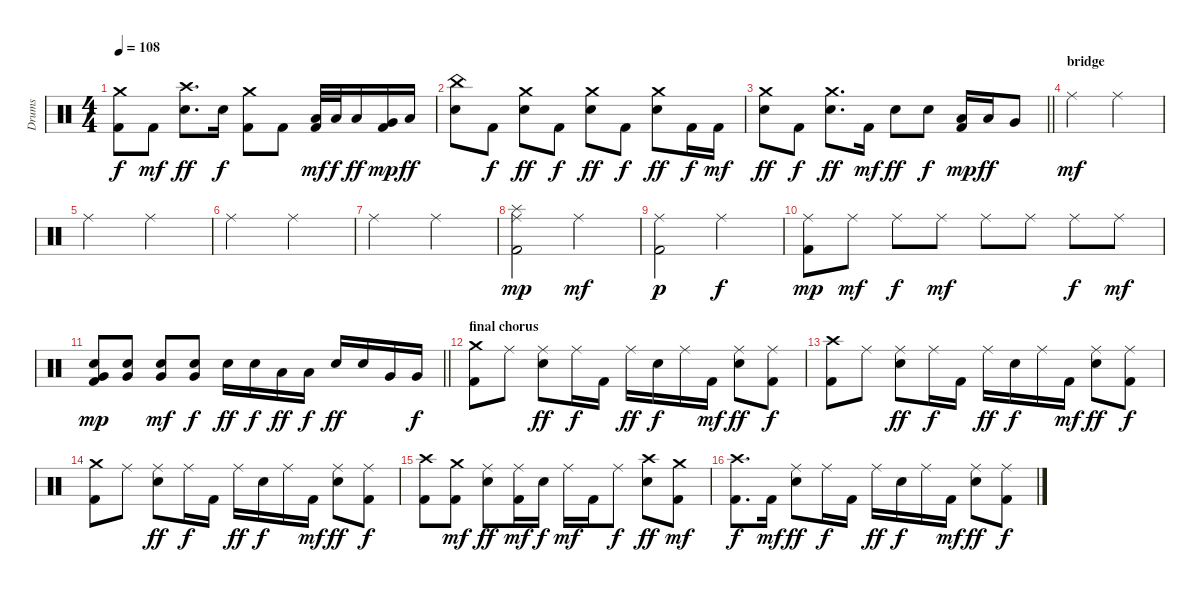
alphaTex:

\track ("Drums" "Drums") {instrument percussion}
\staff {score}
\articulation defaults
\ts (4 4)
\tempo 108
\clef neutral
\ks c
("Crash medium (hit)" "Kick (hit) 2").8{dy f} "Kick (hit) 2".8{dy mf} ("Crash high (hit)" "Electric Snare (hit)").8{d dy ff} "Electric Snare (hit)".16{dy f} ("Crash medium (hit)" "Kick (hit) 2").8 "Kick (hit) 2".8 ("Low Tom (hit)" "Kick (hit) 2").32{dy mf} "Low Tom (hit)".32{dy f} "Low Tom (hit)".16{dy ff} ("Very Low Tom (hit)" "Kick (hit) 2").16{dy mp} "Low Tom (hit)".16{dy ff} |
("China (hit)" "Electric Snare (hit)").8 "Kick (hit) 2".8{dy f} ("Crash medium (hit)" "Electric Snare (hit)").8{dy ff} "Kick (hit) 2".8{dy f} ("Crash medium (hit)" "Electric Snare (hit)").8{dy ff} "Kick (hit) 2".8{dy f} ("Crash medium (hit)" "Electric Snare (hit)").8{dy ff} "Kick (hit) 2".16{dy f} "Kick (hit) 2".16{dy mf} |
\barLineRight lightlight
("Crash medium (hit)" "Electric Snare (hit)").8{dy ff} "Kick (hit) 2".8{dy f} ("Crash medium (hit)" "Electric Snare (hit)").8{d dy ff} "Kick (hit) 2".16{dy mf} "Electric Snare (hit)".8{dy ff} "Electric Snare (hit)".8{dy f} ("Low Tom (hit)" "Kick (hit) 2").16{dy mp} "Low Tom (hit)".16{dy ff} "Very Low Tom (hit)".8 |
\section ("" "bridge")
"Ride (middle)".2{dy mf} "Ride (middle)".2 |
"Ride (middle)".2 "Ride (middle)".2 |
"Ride (middle)".2 "Ride (middle)".2 |
"Ride (middle)".2 "Ride (middle)".2 |
("Ride (middle)" "Splash (hit)" "Kick (hit) 2").2{dy mp} "Ride (middle)".2{dy mf} |
("Ride (middle)" "Kick (hit) 2").2{dy p} "Ride (middle)".2{dy f} |
("Ride (middle)" "Kick (hit) 2").8{dy mp} "Ride (middle)".8{dy mf} "Ride (middle)".8{dy f} "Ride (middle)".8{dy mf} "Ride (middle)".8 "Ride (middle)".8 "Ride (middle)".8{dy f} "Ride (middle)".8{dy mf} |
\barLineRight lightlight
("Very Low Tom (hit)" "Electric Snare (hit)" "Kick (hit) 2").8{dy mp} ("Very Low Tom (hit)" "Electric Snare (hit)").8 ("Very Low Tom (hit)" "Electric Snare (hit)").8{dy mf} ("Very Low Tom (hit)" "Electric Snare (hit)").8{dy f} "Electric Snare (hit)".16{dy ff} "Electric Snare (hit)".16{dy f} "Low Tom (hit)".16{dy ff} "Low Tom (hit)".16{dy f} "Electric Snare (hit)".16{dy ff} "Electric Snare (hit)".16 "Very Low Tom (hit)".16 "Very Low Tom (hit)".16{dy f} |
\section ("" "final chorus")
("Crash medium (hit)" "Kick (hit) 2").8 "Ride (middle)".8 ("Ride (middle)" "Electric Snare (hit)").8{dy ff} "Ride (middle)".16{dy f} "Kick (hit) 2".16 "Ride (middle)".16{dy ff} "Electric Snare (hit)".16{dy f} "Ride (middle)".16 "Kick (hit) 2".16{dy mf} ("Ride (middle)" "Electric Snare (hit)").8{dy ff} ("Ride (middle)" "Kick (hit) 2").8{dy f} |
("Crash high (hit)" "Kick (hit) 2").8 "Ride (middle)".8 ("Ride (middle)" "Electric Snare (hit)").8{dy ff} "Ride (middle)".16{dy f} "Kick (hit) 2".16 "Ride (middle)".16{dy ff} "Electric Snare (hit)".16{dy f} "Ride (middle)".16 "Kick (hit) 2".16{dy mf} ("Ride (middle)" "Electric Snare (hit)").8{dy ff} ("Ride (middle)" "Kick (hit) 2").8{dy f} |
("Crash medium (hit)" "Kick (hit) 2").8 "Ride (middle)".8 ("Ride (middle)" "Electric Snare (hit)").8{dy ff} "Ride (middle)".16{dy f} "Kick (hit) 2".16 "Ride (middle)".16{dy ff} "Electric Snare (hit)".16{dy f} "Ride (middle)".16 "Kick (hit) 2".16{dy mf} ("Ride (middle)" "Electric Snare (hit)").8{dy ff} ("Ride (middle)" "Kick (hit) 2").8{dy f} |
("Crash high (hit)" "Kick (hit) 2").8 ("Crash medium (hit)" "Kick (hit) 2").8{dy mf} ("Ride (middle)" "Electric Snare (hit)").8{dy ff} ("Ride (middle)" "Kick (hit) 2").16{dy mf} "Electric Snare (hit)".16{dy f} "Ride (middle)".16{dy mf} "Kick (hit) 2".16 "Ride (middle)".8{dy f} ("Crash high (hit)" "Electric Snare (hit)").8{dy ff} ("Crash medium (hit)" "Kick (hit) 2").8{dy mf} |
("Crash high (hit)" "Kick (hit) 2").8{d dy f} "Kick (hit) 2".16{dy mf} ("Ride (middle)" "Electric Snare (hit)").8{dy ff} "Ride (middle)".16{dy f} "Kick (hit) 2".16 "Ride (middle)".16{dy ff} "Electric Snare (hit)".16{dy f} "Ride (middle)".16 "Kick (hit) 2".16{dy mf} ("Ride (middle)" "Electric Snare (hit)").8{dy ff} ("Ride (middle)" "Kick (hit) 2").8{dy f}
